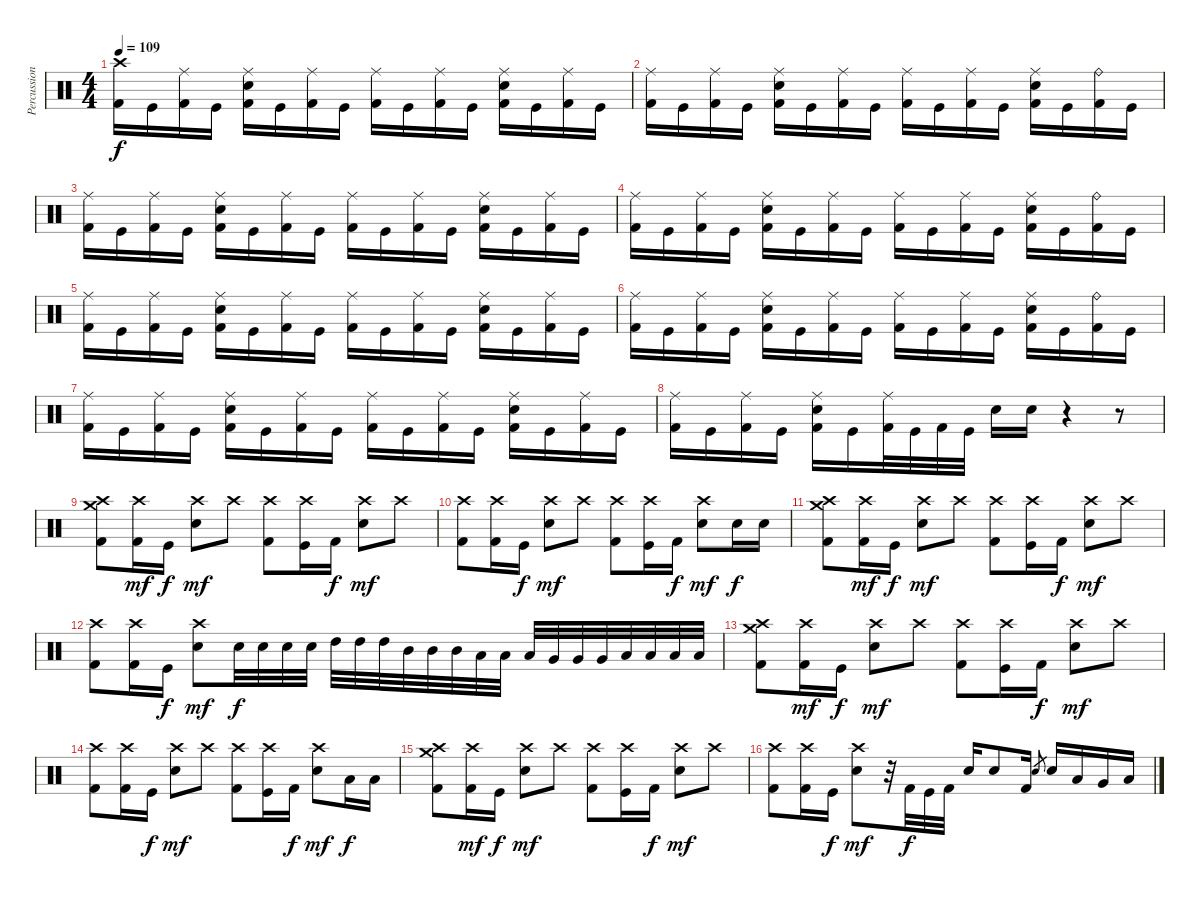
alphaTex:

\track ("Percussion" "Percussion") {instrument percussion}
\staff {score}
\articulation defaults
\ts (4 4)
\tempo 109
\clef neutral
\ks c
("Crash high (hit)" "Kick (hit) 2").16{dy f} "Kick (hit)".16 ("Ride (middle)" "Kick (hit) 2").16 "Kick (hit)".16 ("Ride (middle)" "Electric Snare (hit)" "Kick (hit) 2").16 "Kick (hit)".16 ("Ride (middle)" "Kick (hit) 2").16 "Kick (hit)".16 ("Ride (middle)" "Kick (hit) 2").16 "Kick (hit)".16 ("Ride (middle)" "Kick (hit) 2").16 "Kick (hit)".16 ("Ride (middle)" "Electric Snare (hit)" "Kick (hit) 2").16 "Kick (hit)".16 ("Ride (middle)" "Kick (hit) 2").16 "Kick (hit)".16 |
("Ride (middle)" "Kick (hit) 2").16 "Kick (hit)".16 ("Ride (middle)" "Kick (hit) 2").16 "Kick (hit)".16 ("Ride (middle)" "Electric Snare (hit)" "Kick (hit) 2").16 "Kick (hit)".16 ("Ride (middle)" "Kick (hit) 2").16 "Kick (hit)".16 ("Ride (middle)" "Kick (hit) 2").16 "Kick (hit)".16 ("Ride (middle)" "Kick (hit) 2").16 "Kick (hit)".16 ("Ride (middle)" "Electric Snare (hit)" "Kick (hit) 2").16 "Kick (hit)".16 ("Ride (bell)" "Kick (hit) 2").16 "Kick (hit)".16 |
("Ride (middle)" "Kick (hit) 2").16 "Kick (hit)".16 ("Ride (middle)" "Kick (hit) 2").16 "Kick (hit)".16 ("Ride (middle)" "Electric Snare (hit)" "Kick (hit) 2").16 "Kick (hit)".16 ("Ride (middle)" "Kick (hit) 2").16 "Kick (hit)".16 ("Ride (middle)" "Kick (hit) 2").16 "Kick (hit)".16 ("Ride (middle)" "Kick (hit) 2").16 "Kick (hit)".16 ("Ride (middle)" "Electric Snare (hit)" "Kick (hit) 2").16 "Kick (hit)".16 ("Ride (middle)" "Kick (hit) 2").16 "Kick (hit)".16 |
("Ride (middle)" "Kick (hit) 2").16 "Kick (hit)".16 ("Ride (middle)" "Kick (hit) 2").16 "Kick (hit)".16 ("Ride (middle)" "Electric Snare (hit)" "Kick (hit) 2").16 "Kick (hit)".16 ("Ride (middle)" "Kick (hit) 2").16 "Kick (hit)".16 ("Ride (middle)" "Kick (hit) 2").16 "Kick (hit)".16 ("Ride (middle)" "Kick (hit) 2").16 "Kick (hit)".16 ("Ride (middle)" "Electric Snare (hit)" "Kick (hit) 2").16 "Kick (hit)".16 ("Ride (bell)" "Kick (hit) 2").16 "Kick (hit)".16 |
("Ride (middle)" "Kick (hit) 2").16 "Kick (hit)".16 ("Ride (middle)" "Kick (hit) 2").16 "Kick (hit)".16 ("Ride (middle)" "Electric Snare (hit)" "Kick (hit) 2").16 "Kick (hit)".16 ("Ride (middle)" "Kick (hit) 2").16 "Kick (hit)".16 ("Ride (middle)" "Kick (hit) 2").16 "Kick (hit)".16 ("Ride (middle)" "Kick (hit) 2").16 "Kick (hit)".16 ("Ride (middle)" "Electric Snare (hit)" "Kick (hit) 2").16 "Kick (hit)".16 ("Ride (middle)" "Kick (hit) 2").16 "Kick (hit)".16 |
("Ride (middle)" "Kick (hit) 2").16 "Kick (hit)".16 ("Ride (middle)" "Kick (hit) 2").16 "Kick (hit)".16 ("Ride (middle)" "Electric Snare (hit)" "Kick (hit) 2").16 "Kick (hit)".16 ("Ride (middle)" "Kick (hit) 2").16 "Kick (hit)".16 ("Ride (middle)" "Kick (hit) 2").16 "Kick (hit)".16 ("Ride (middle)" "Kick (hit) 2").16 "Kick (hit)".16 ("Ride (middle)" "Electric Snare (hit)" "Kick (hit) 2").16 "Kick (hit)".16 ("Ride (bell)" "Kick (hit) 2").16 "Kick (hit)".16 |
("Ride (middle)" "Kick (hit) 2").16 "Kick (hit)".16 ("Ride (middle)" "Kick (hit) 2").16 "Kick (hit)".16 ("Ride (middle)" "Electric Snare (hit)" "Kick (hit) 2").16 "Kick (hit)".16 ("Ride (middle)" "Kick (hit) 2").16 "Kick (hit)".16 ("Ride (middle)" "Kick (hit) 2").16 "Kick (hit)".16 ("Ride (middle)" "Kick (hit) 2").16 "Kick (hit)".16 ("Ride (middle)" "Electric Snare (hit)" "Kick (hit) 2").16 "Kick (hit)".16 ("Ride (middle)" "Kick (hit) 2").16 "Kick (hit)".16 |
("Ride (middle)" "Kick (hit) 2").16 "Kick (hit)".16 ("Ride (middle)" "Kick (hit) 2").16 "Kick (hit)".16 ("Ride (middle)" "Electric Snare (hit)" "Kick (hit) 2").16 "Kick (hit)".16 ("Ride (middle)" "Kick (hit) 2").32 "Kick (hit)".32 "Kick (hit) 2".32 "Kick (hit)".32 "Electric Snare (hit)".16 "Electric Snare (hit)".16 r.4 r.8 |
("Crash medium (hit)" "Crash high (hit)" "Kick (hit) 2").8 ("Crash high (hit)" "Kick (hit) 2").16{dy mf} "Kick (hit)".16{dy f} ("Crash high (hit)" "Electric Snare (hit)").8{dy mf} "Crash high (hit)".8 ("Crash high (hit)" "Kick (hit) 2").8 ("Crash high (hit)" "Kick (hit)").16 "Kick (hit) 2".16{dy f} ("Crash high (hit)" "Electric Snare (hit)").8{dy mf} "Crash high (hit)".8 |
("Crash high (hit)" "Kick (hit) 2").8 ("Crash high (hit)" "Kick (hit) 2").16 "Kick (hit)".16{dy f} ("Crash high (hit)" "Electric Snare (hit)").8{dy mf} "Crash high (hit)".8 ("Crash high (hit)" "Kick (hit) 2").8 ("Crash high (hit)" "Kick (hit)").16 "Kick (hit) 2".16{dy f} ("Crash high (hit)" "Electric Snare (hit)").8{dy mf} "Electric Snare (hit)".16{dy f} "Electric Snare (hit)".16 |
("Crash medium (hit)" "Crash high (hit)" "Kick (hit) 2").8 ("Crash high (hit)" "Kick (hit) 2").16{dy mf} "Kick (hit)".16{dy f} ("Crash high (hit)" "Electric Snare (hit)").8{dy mf} "Crash high (hit)".8 ("Crash high (hit)" "Kick (hit) 2").8 ("Crash high (hit)" "Kick (hit)").16 "Kick (hit) 2".16{dy f} ("Crash high (hit)" "Electric Snare (hit)").8{dy mf} "Crash high (hit)".8 |
("Crash high (hit)" "Kick (hit) 2").8 ("Crash high (hit)" "Kick (hit) 2").16 "Kick (hit)".16{dy f} ("Crash high (hit)" "Electric Snare (hit)").8{dy mf} "Electric Snare (hit)".32{dy f} "Electric Snare (hit)".32 "Electric Snare (hit)".32 "Electric Snare (hit)".32 "High Tom (hit)".32 "High Tom (hit)".32 "High Tom (hit)".32 "Mid Tom (hit)".32 "Mid Tom (hit)".32 "Mid Tom (hit)".32 "Low Tom (hit)".32 "Low Tom (hit)".32 "Low Tom (hit)".32 "Very Low Tom (hit)".32 "Very Low Tom (hit)".32 "Very Low Tom (hit)".32 "Low Floor Tom (hit)".32 "Low Floor Tom (hit)".32 "Low Floor Tom (hit)".32 "Low Floor Tom (hit)".32 |
("Crash medium (hit)" "Crash high (hit)" "Kick (hit) 2").8 ("Crash high (hit)" "Kick (hit) 2").16{dy mf} "Kick (hit)".16{dy f} ("Crash high (hit)" "Electric Snare (hit)").8{dy mf} "Crash high (hit)".8 ("Crash high (hit)" "Kick (hit) 2").8 ("Crash high (hit)" "Kick (hit)").16 "Kick (hit) 2".16{dy f} ("Crash high (hit)" "Electric Snare (hit)").8{dy mf} "Crash high (hit)".8 |
("Crash high (hit)" "Kick (hit) 2").8 ("Crash high (hit)" "Kick (hit) 2").16 "Kick (hit)".16{dy f} ("Crash high (hit)" "Electric Snare (hit)").8{dy mf} "Crash high (hit)".8 ("Crash high (hit)" "Kick (hit) 2").8 ("Crash high (hit)" "Kick (hit)").16 "Kick (hit) 2".16{dy f} ("Crash high (hit)" "Electric Snare (hit)").8{dy mf} "Low Floor Tom (hit)".16{dy f} "Low Floor Tom (hit)".16 |
("Crash medium (hit)" "Crash high (hit)" "Kick (hit) 2").8 ("Crash high (hit)" "Kick (hit) 2").16{dy mf} "Kick (hit)".16{dy f} ("Crash high (hit)" "Electric Snare (hit)").8{dy mf} "Crash high (hit)".8 ("Crash high (hit)" "Kick (hit) 2").8 ("Crash high (hit)" "Kick (hit)").16 "Kick (hit) 2".16{dy f} ("Crash high (hit)" "Electric Snare (hit)").8{dy mf} "Crash high (hit)".8 |
("Crash high (hit)" "Kick (hit) 2").8 ("Crash high (hit)" "Kick (hit) 2").16 "Kick (hit)".16{dy f} ("Crash high (hit)" "Electric Snare (hit)").8{dy mf} r.32 "Kick (hit) 2".32{dy f} "Kick (hit)".32 "Kick (hit) 2".32 "Electric Snare (hit)".16 "Electric Snare (hit)".8 "Kick (hit) 2".16 "Electric Snare (hit)".8{gr} "Electric Snare (hit)".16 "Low Tom (hit)".16 "Very Low Tom (hit)".16 "Low Floor Tom (hit)".16
